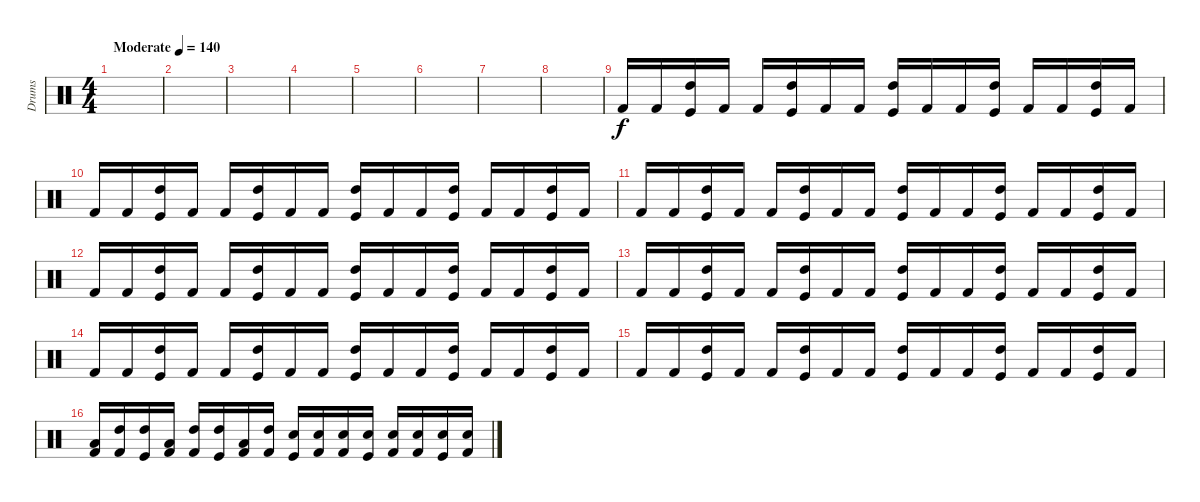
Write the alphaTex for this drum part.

\track ("Drums" "Drums") {instrument percussion}
\staff {score}
\articulation defaults
\ts (4 4)
\tempo (140 "Moderate")
\clef neutral
\ks c
|
|
|
|
|
|
|
|
"Kick (hit) 2".16 "Kick (hit) 2".16 ("Kick (hit)" "High Tom (hit)").16 "Kick (hit) 2".16 "Kick (hit) 2".16 ("Kick (hit)" "High Tom (hit)").16 "Kick (hit) 2".16 "Kick (hit) 2".16 ("Kick (hit)" "High Tom (hit)").16 "Kick (hit) 2".16 "Kick (hit) 2".16 ("Kick (hit)" "High Tom (hit)").16 "Kick (hit) 2".16 "Kick (hit) 2".16 ("Kick (hit)" "High Tom (hit)").16 "Kick (hit) 2".16 |
"Kick (hit) 2".16 "Kick (hit) 2".16 ("Kick (hit)" "High Tom (hit)").16 "Kick (hit) 2".16 "Kick (hit) 2".16 ("Kick (hit)" "High Tom (hit)").16 "Kick (hit) 2".16 "Kick (hit) 2".16 ("Kick (hit)" "High Tom (hit)").16 "Kick (hit) 2".16 "Kick (hit) 2".16 ("Kick (hit)" "High Tom (hit)").16 "Kick (hit) 2".16 "Kick (hit) 2".16 ("Kick (hit)" "High Tom (hit)").16 "Kick (hit) 2".16 |
"Kick (hit) 2".16 "Kick (hit) 2".16 ("Kick (hit)" "High Tom (hit)").16 "Kick (hit) 2".16 "Kick (hit) 2".16 ("Kick (hit)" "High Tom (hit)").16 "Kick (hit) 2".16 "Kick (hit) 2".16 ("Kick (hit)" "High Tom (hit)").16 "Kick (hit) 2".16 "Kick (hit) 2".16 ("Kick (hit)" "High Tom (hit)").16 "Kick (hit) 2".16 "Kick (hit) 2".16 ("Kick (hit)" "High Tom (hit)").16 "Kick (hit) 2".16 |
"Kick (hit) 2".16 "Kick (hit) 2".16 ("Kick (hit)" "High Tom (hit)").16 "Kick (hit) 2".16 "Kick (hit) 2".16 ("Kick (hit)" "High Tom (hit)").16 "Kick (hit) 2".16 "Kick (hit) 2".16 ("Kick (hit)" "High Tom (hit)").16 "Kick (hit) 2".16 "Kick (hit) 2".16 ("Kick (hit)" "High Tom (hit)").16 "Kick (hit) 2".16 "Kick (hit) 2".16 ("Kick (hit)" "High Tom (hit)").16 "Kick (hit) 2".16 |
"Kick (hit) 2".16 "Kick (hit) 2".16 ("Kick (hit)" "High Tom (hit)").16 "Kick (hit) 2".16 "Kick (hit) 2".16 ("Kick (hit)" "High Tom (hit)").16 "Kick (hit) 2".16 "Kick (hit) 2".16 ("Kick (hit)" "High Tom (hit)").16 "Kick (hit) 2".16 "Kick (hit) 2".16 ("Kick (hit)" "High Tom (hit)").16 "Kick (hit) 2".16 "Kick (hit) 2".16 ("Kick (hit)" "High Tom (hit)").16 "Kick (hit) 2".16 |
"Kick (hit) 2".16 "Kick (hit) 2".16 ("Kick (hit)" "High Tom (hit)").16 "Kick (hit) 2".16 "Kick (hit) 2".16 ("Kick (hit)" "High Tom (hit)").16 "Kick (hit) 2".16 "Kick (hit) 2".16 ("Kick (hit)" "High Tom (hit)").16 "Kick (hit) 2".16 "Kick (hit) 2".16 ("Kick (hit)" "High Tom (hit)").16 "Kick (hit) 2".16 "Kick (hit) 2".16 ("Kick (hit)" "High Tom (hit)").16 "Kick (hit) 2".16 |
"Kick (hit) 2".16 "Kick (hit) 2".16 ("Kick (hit)" "High Tom (hit)").16 "Kick (hit) 2".16 "Kick (hit) 2".16 ("Kick (hit)" "High Tom (hit)").16 "Kick (hit) 2".16 "Kick (hit) 2".16 ("Kick (hit)" "High Tom (hit)").16 "Kick (hit) 2".16 "Kick (hit) 2".16 ("Kick (hit)" "High Tom (hit)").16 "Kick (hit) 2".16 "Kick (hit) 2".16 ("Kick (hit)" "High Tom (hit)").16 "Kick (hit) 2".16 |
("Kick (hit) 2" "Low Tom (hit)").16 ("Kick (hit) 2" "High Tom (hit)").16 ("Kick (hit)" "High Tom (hit)").16 ("Kick (hit) 2" "Low Tom (hit)").16 ("Kick (hit) 2" "High Tom (hit)").16 ("Kick (hit)" "High Tom (hit)").16 ("Kick (hit) 2" "Low Tom (hit)").16 ("Kick (hit) 2" "High Tom (hit)").16 ("Kick (hit)" "Snare (hit) 2").16 ("Kick (hit) 2" "Snare (hit) 2").16 ("Kick (hit) 2" "Snare (hit) 2").16 ("Kick (hit)" "Snare (hit) 2").16 ("Kick (hit) 2" "Snare (hit) 2").16 ("Kick (hit) 2" "Snare (hit) 2").16 ("Kick (hit)" "Snare (hit) 2").16 ("Kick (hit) 2" "Snare (hit) 2").16
